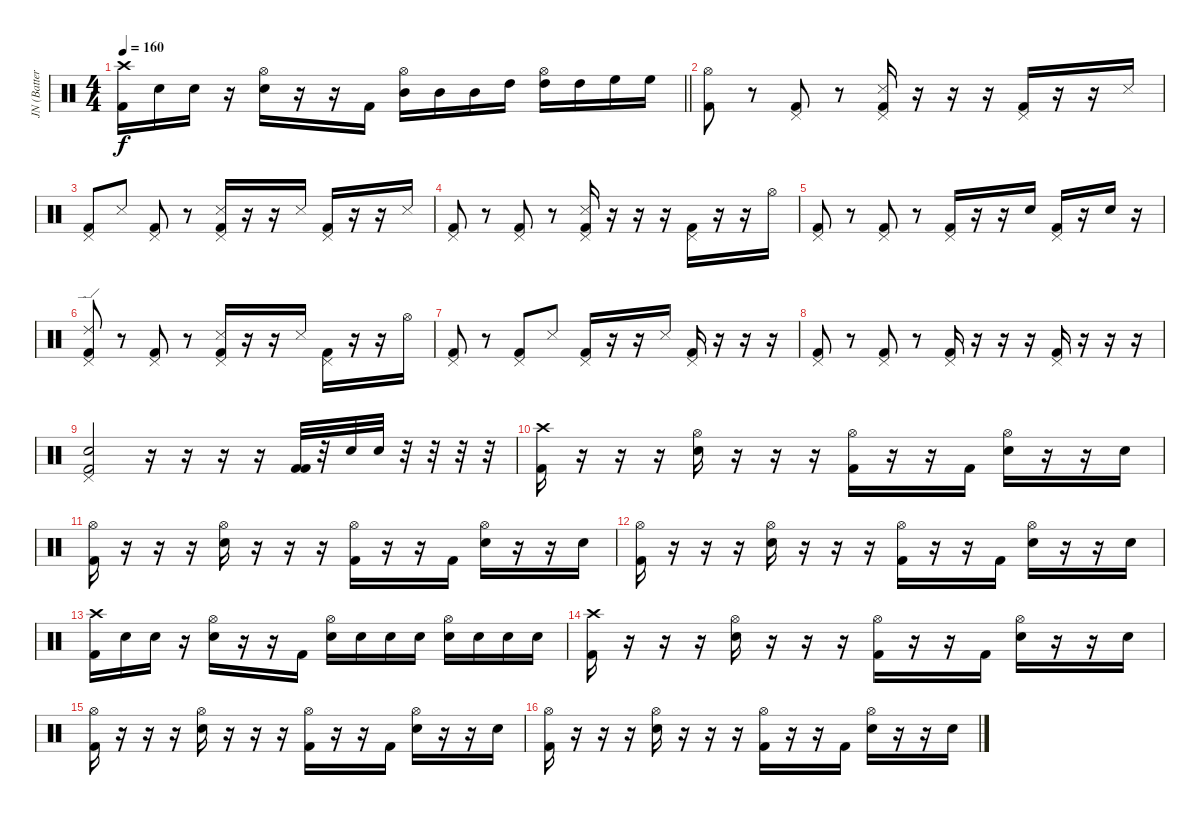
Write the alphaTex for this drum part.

\track ("JN (Batterie)" "JN (Batter") {instrument percussion}
\staff {score}
\articulation defaults
\ts (4 4)
\tempo 160
\clef neutral
\barLineRight lightlight
\ks c
("Crash high (hit)" "Kick (hit) 2").16{dy f} "Electric Snare (hit)".16 "Electric Snare (hit)".16 r.16 ("Hi-Hat (open)" "Electric Snare (hit)").16 r.16 r.16 "Kick (hit) 2".16 ("Hi-Hat (open)" "Mid Tom (hit)").16 "Mid Tom (hit)".16 "Mid Tom (hit)".16 "High Tom (hit)".16 ("Hi-Hat (open)" "High Tom (hit)").16 "High Tom (hit)".16 "High Floor Tom (hit)".16 "High Floor Tom (hit)".16 |
("Hi-Hat (open)" "Kick (hit) 2").8 r.8 ("Pedal Hi-Hat (hit)" "Kick (hit) 2").8 r.8 ("Snare (side stick) 3" "Pedal Hi-Hat (hit)" "Kick (hit) 2").16 r.16 r.16 r.16 ("Pedal Hi-Hat (hit)" "Kick (hit) 2").16 r.16 r.16 "Snare (side stick) 3".16 |
("Pedal Hi-Hat (hit)" "Kick (hit) 2").8 "Snare (side stick) 3".8 ("Pedal Hi-Hat (hit)" "Kick (hit) 2").8 r.8 ("Snare (side stick) 3" "Pedal Hi-Hat (hit)" "Kick (hit) 2").16 r.16 r.16 "Snare (side stick) 3".16 ("Pedal Hi-Hat (hit)" "Kick (hit) 2").16 r.16 r.16 "Snare (side stick) 3".16 |
("Pedal Hi-Hat (hit)" "Kick (hit) 2").8 r.8 ("Pedal Hi-Hat (hit)" "Kick (hit) 2").8 r.8 ("Snare (side stick) 3" "Pedal Hi-Hat (hit)" "Kick (hit) 2").16 r.16 r.16 r.16 ("Pedal Hi-Hat (hit)" "Kick (hit) 2").16 r.16 r.16 "Hi-Hat (open)".16 |
("Pedal Hi-Hat (hit)" "Kick (hit) 2").8 r.8 ("Pedal Hi-Hat (hit)" "Kick (hit) 2").8 r.8 ("Pedal Hi-Hat (hit)" "Kick (hit) 2").16 r.16 r.16 "Electric Snare (hit)".16 ("Pedal Hi-Hat (hit)" "Kick (hit) 2").16 r.16 "Electric Snare (hit)".16 r.16 |
("Ride (edge) 2" "Pedal Hi-Hat (hit)" "Kick (hit) 2").8 r.8 ("Pedal Hi-Hat (hit)" "Kick (hit) 2").8 r.8 ("Snare (side stick) 3" "Pedal Hi-Hat (hit)" "Kick (hit) 2").16 r.16 r.16 "Snare (side stick) 3".16 ("Pedal Hi-Hat (hit)" "Kick (hit) 2").16 r.16 r.16 "Hi-Hat (open)".16 |
("Pedal Hi-Hat (hit)" "Kick (hit) 2").8 r.8 ("Pedal Hi-Hat (hit)" "Kick (hit) 2").8 "Snare (side stick) 3".8 ("Pedal Hi-Hat (hit)" "Kick (hit) 2").16 r.16 r.16 "Snare (side stick) 3".16 ("Pedal Hi-Hat (hit)" "Kick (hit) 2").16 r.16 r.16 r.16 |
("Pedal Hi-Hat (hit)" "Kick (hit) 2").8 r.8 ("Pedal Hi-Hat (hit)" "Kick (hit) 2").8 r.8 ("Pedal Hi-Hat (hit)" "Kick (hit) 2").16 r.16 r.16 r.16 ("Pedal Hi-Hat (hit)" "Kick (hit) 2").16 r.16 r.16 r.16 |
("Pedal Hi-Hat (hit)" "Electric Snare (hit)" "Kick (hit) 2").2 r.16 r.16 r.16 r.16 ("Kick (hit) 2" "Kick (hit) 2").32 r.32 "Electric Snare (hit)".32 "Electric Snare (hit)".32 r.32 r.32 r.32 r.32 |
("Crash high (hit)" "Kick (hit) 2").16 r.16 r.16 r.16 ("Hi-Hat (open)" "Electric Snare (hit)").16 r.16 r.16 r.16 ("Hi-Hat (open)" "Kick (hit) 2").16 r.16 r.16 "Kick (hit) 2".16 ("Hi-Hat (open)" "Electric Snare (hit)").16 r.16 r.16 "Electric Snare (hit)".16 |
("Hi-Hat (open)" "Kick (hit) 2").16 r.16 r.16 r.16 ("Hi-Hat (open)" "Electric Snare (hit)").16 r.16 r.16 r.16 ("Hi-Hat (open)" "Kick (hit) 2").16 r.16 r.16 "Kick (hit) 2".16 ("Hi-Hat (open)" "Electric Snare (hit)").16 r.16 r.16 "Electric Snare (hit)".16 |
("Hi-Hat (open)" "Kick (hit) 2").16 r.16 r.16 r.16 ("Hi-Hat (open)" "Electric Snare (hit)").16 r.16 r.16 r.16 ("Hi-Hat (open)" "Kick (hit) 2").16 r.16 r.16 "Kick (hit) 2".16 ("Hi-Hat (open)" "Electric Snare (hit)").16 r.16 r.16 "Electric Snare (hit)".16 |
("Crash high (hit)" "Kick (hit) 2").16 "Electric Snare (hit)".16 "Electric Snare (hit)".16 r.16 ("Hi-Hat (open)" "Electric Snare (hit)").16 r.16 r.16 "Kick (hit) 2".16 ("Hi-Hat (open)" "Electric Snare (hit)").16 "Electric Snare (hit)".16 "Electric Snare (hit)".16 "Electric Snare (hit)".16 ("Hi-Hat (open)" "Snare (hit) 2").16 "Electric Snare (hit)".16 "Electric Snare (hit)".16 "Electric Snare (hit)".16 |
("Crash high (hit)" "Kick (hit) 2").16 r.16 r.16 r.16 ("Hi-Hat (open)" "Electric Snare (hit)").16 r.16 r.16 r.16 ("Hi-Hat (open)" "Kick (hit) 2").16 r.16 r.16 "Kick (hit) 2".16 ("Hi-Hat (open)" "Electric Snare (hit)").16 r.16 r.16 "Electric Snare (hit)".16 |
("Hi-Hat (open)" "Kick (hit) 2").16 r.16 r.16 r.16 ("Hi-Hat (open)" "Electric Snare (hit)").16 r.16 r.16 r.16 ("Hi-Hat (open)" "Kick (hit) 2").16 r.16 r.16 "Kick (hit) 2".16 ("Hi-Hat (open)" "Electric Snare (hit)").16 r.16 r.16 "Electric Snare (hit)".16 |
("Hi-Hat (open)" "Kick (hit) 2").16 r.16 r.16 r.16 ("Hi-Hat (open)" "Electric Snare (hit)").16 r.16 r.16 r.16 ("Hi-Hat (open)" "Kick (hit) 2").16 r.16 r.16 "Kick (hit) 2".16 ("Hi-Hat (open)" "Electric Snare (hit)").16 r.16 r.16 "Electric Snare (hit)".16
